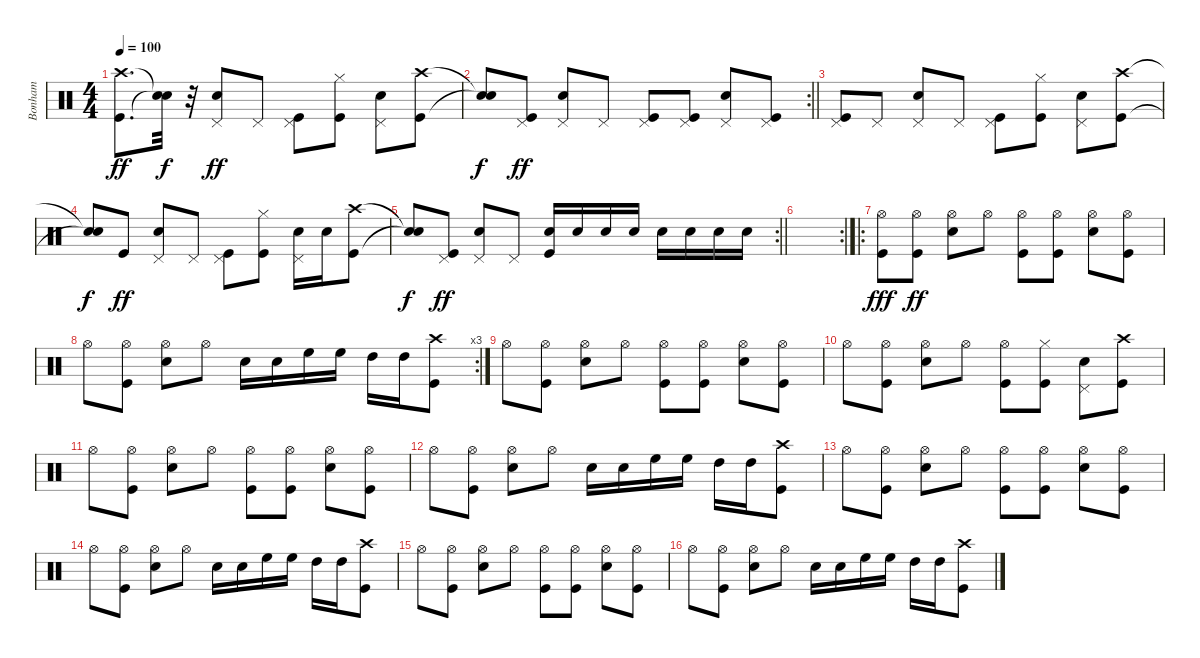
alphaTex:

\track ("Bonham" "Bonham") {instrument percussion}
\staff {score}
\articulation defaults
\ts (4 4)
\tempo 100
\clef neutral
\ks c
("Kick (hit)" "Crash high (hit)").8{d dy ff} ("Snare (hit)"{t} "Snare (hit)"{t}).32{dy f} r.32 ("Snare (hit) 2" "Pedal Hi-Hat (hit)").8{dy ff} "Pedal Hi-Hat (hit)".8 ("Kick (hit)" "Pedal Hi-Hat (hit)").8 ("Kick (hit)" "Hi-Hat (closed)").8 ("Snare (hit) 2" "Pedal Hi-Hat (hit)").8 ("Kick (hit)" "Crash high (hit)").8 |
\rc 2
\barLineRight lightlight
("Snare (hit)"{t} "Snare (hit)"{t}).8{dy f} ("Kick (hit)" "Pedal Hi-Hat (hit)").8{dy ff} ("Snare (hit) 2" "Pedal Hi-Hat (hit)").8 "Pedal Hi-Hat (hit)".8 ("Kick (hit)" "Pedal Hi-Hat (hit)").8 ("Kick (hit)" "Pedal Hi-Hat (hit)").8 ("Snare (hit) 2" "Pedal Hi-Hat (hit)").8 ("Kick (hit)" "Pedal Hi-Hat (hit)").8 |
("Kick (hit)" "Pedal Hi-Hat (hit)").8 "Pedal Hi-Hat (hit)".8 ("Snare (hit) 2" "Pedal Hi-Hat (hit)").8 "Pedal Hi-Hat (hit)".8 ("Kick (hit)" "Pedal Hi-Hat (hit)").8 ("Kick (hit)" "Hi-Hat (closed)").8 ("Snare (hit) 2" "Pedal Hi-Hat (hit)").8 ("Kick (hit)" "Crash high (hit)").8 |
("Snare (hit)"{t} "Snare (hit)"{t}).8{dy f} "Kick (hit)".8{dy ff} ("Snare (hit) 2" "Pedal Hi-Hat (hit)").8 "Pedal Hi-Hat (hit)".8 ("Kick (hit)" "Pedal Hi-Hat (hit)").8 ("Kick (hit)" "Hi-Hat (closed)").8 ("Snare (hit) 2" "Pedal Hi-Hat (hit)").16 "Snare (hit) 2".16 ("Kick (hit)" "Crash high (hit)").8 |
\rc 2
\barLineRight lightlight
("Snare (hit)"{t} "Snare (hit)"{t}).8{dy f} ("Kick (hit)" "Pedal Hi-Hat (hit)").8{dy ff} ("Snare (hit) 2" "Pedal Hi-Hat (hit)").8 "Pedal Hi-Hat (hit)".8 ("Kick (hit)" "Snare (hit) 2").16 "Snare (hit) 2".16 "Snare (hit) 2".16 "Snare (hit) 2".16 "Snare (hit) 2".16 "Snare (hit) 2".16 "Snare (hit) 2".16 "Snare (hit) 2".16 |
\rc 2
|
\ro
("Kick (hit)" "Hi-Hat (open)").8{dy fff} ("Kick (hit)" "Hi-Hat (open)").8{dy ff} ("Snare (hit) 2" "Hi-Hat (open)").8 "Hi-Hat (open)".8 ("Kick (hit)" "Hi-Hat (open)").8 ("Kick (hit)" "Hi-Hat (open)").8 ("Snare (hit) 2" "Hi-Hat (open)").8 ("Kick (hit)" "Hi-Hat (open)").8 |
\rc 3 "Hi-Hat (open)".8
("Kick (hit)" "Hi-Hat (open)").8 ("Snare (hit) 2" "Hi-Hat (open)").8 "Hi-Hat (open)".8 "Snare (hit) 2".16 "Snare (hit) 2".16 "High Floor Tom (hit)".16 "High Floor Tom (hit)".16 "High Tom (hit)".16 "High Tom (hit)".16 ("Kick (hit)" "Crash high (hit)").8 |
"Hi-Hat (open)".8 ("Kick (hit)" "Hi-Hat (open)").8 ("Snare (hit) 2" "Hi-Hat (open)").8 "Hi-Hat (open)".8 ("Kick (hit)" "Hi-Hat (open)").8 ("Kick (hit)" "Hi-Hat (open)").8 ("Snare (hit) 2" "Hi-Hat (open)").8 ("Kick (hit)" "Hi-Hat (open)").8 |
"Hi-Hat (open)".8 ("Kick (hit)" "Hi-Hat (open)").8 ("Snare (hit) 2" "Hi-Hat (open)").8 "Hi-Hat (open)".8 ("Kick (hit)" "Hi-Hat (open)").8 ("Kick (hit)" "Hi-Hat (closed)").8 ("Snare (hit) 2" "Pedal Hi-Hat (hit)").8 ("Kick (hit)" "Crash high (hit)").8 |
"Hi-Hat (open)".8 ("Kick (hit)" "Hi-Hat (open)").8 ("Snare (hit) 2" "Hi-Hat (open)").8 "Hi-Hat (open)".8 ("Kick (hit)" "Hi-Hat (open)").8 ("Kick (hit)" "Hi-Hat (open)").8 ("Snare (hit) 2" "Hi-Hat (open)").8 ("Kick (hit)" "Hi-Hat (open)").8 |
"Hi-Hat (open)".8 ("Kick (hit)" "Hi-Hat (open)").8 ("Snare (hit) 2" "Hi-Hat (open)").8 "Hi-Hat (open)".8 "Snare (hit) 2".16 "Snare (hit) 2".16 "High Floor Tom (hit)".16 "High Floor Tom (hit)".16 "High Tom (hit)".16 "High Tom (hit)".16 ("Kick (hit)" "Crash high (hit)").8 |
"Hi-Hat (open)".8 ("Kick (hit)" "Hi-Hat (open)").8 ("Snare (hit) 2" "Hi-Hat (open)").8 "Hi-Hat (open)".8 ("Kick (hit)" "Hi-Hat (open)").8 ("Kick (hit)" "Hi-Hat (open)").8 ("Snare (hit) 2" "Hi-Hat (open)").8 ("Kick (hit)" "Hi-Hat (open)").8 |
"Hi-Hat (open)".8 ("Kick (hit)" "Hi-Hat (open)").8 ("Snare (hit) 2" "Hi-Hat (open)").8 "Hi-Hat (open)".8 "Snare (hit) 2".16 "Snare (hit) 2".16 "High Floor Tom (hit)".16 "High Floor Tom (hit)".16 "High Tom (hit)".16 "High Tom (hit)".16 ("Kick (hit)" "Crash high (hit)").8 |
"Hi-Hat (open)".8 ("Kick (hit)" "Hi-Hat (open)").8 ("Snare (hit) 2" "Hi-Hat (open)").8 "Hi-Hat (open)".8 ("Kick (hit)" "Hi-Hat (open)").8 ("Kick (hit)" "Hi-Hat (open)").8 ("Snare (hit) 2" "Hi-Hat (open)").8 ("Kick (hit)" "Hi-Hat (open)").8 |
"Hi-Hat (open)".8 ("Kick (hit)" "Hi-Hat (open)").8 ("Snare (hit) 2" "Hi-Hat (open)").8 "Hi-Hat (open)".8 "Snare (hit) 2".16 "Snare (hit) 2".16 "High Floor Tom (hit)".16 "High Floor Tom (hit)".16 "High Tom (hit)".16 "High Tom (hit)".16 ("Kick (hit)" "Crash high (hit)").8
